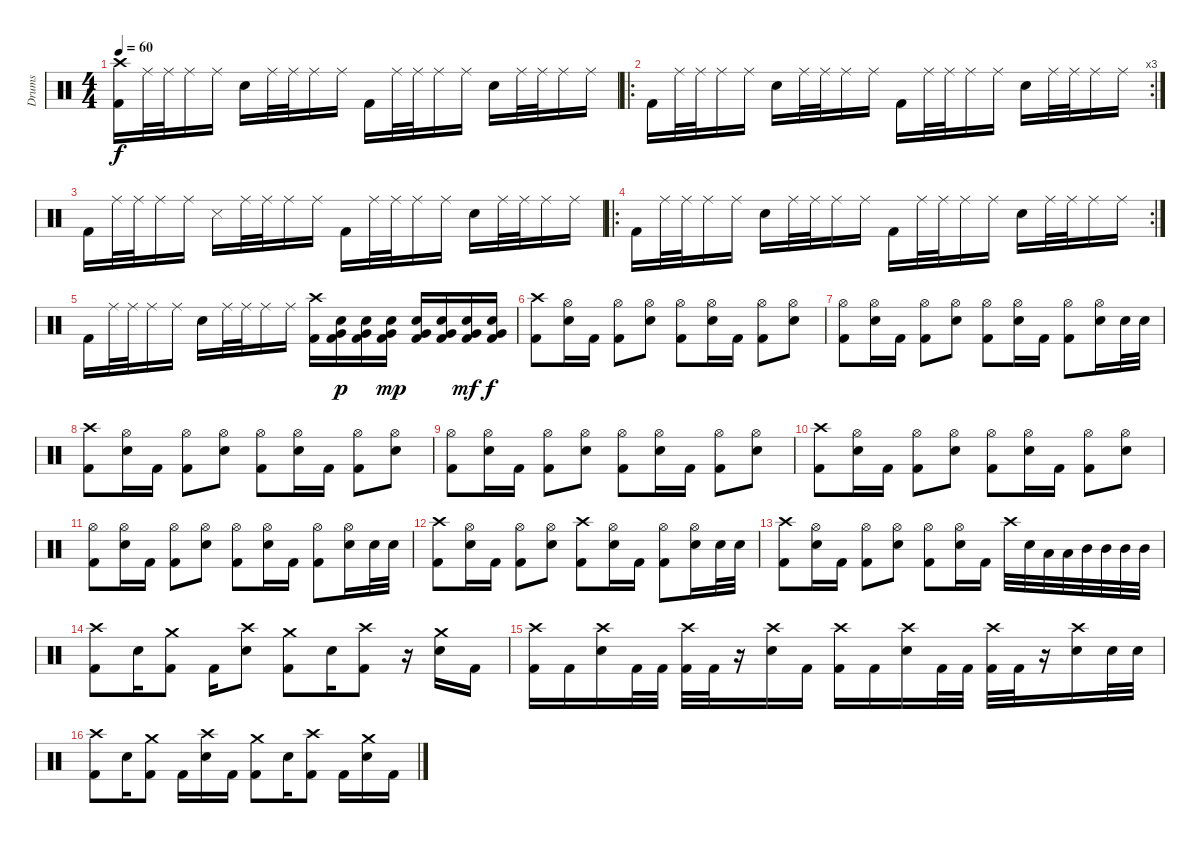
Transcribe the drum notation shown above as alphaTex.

\track ("Drums" "Drums") {instrument percussion}
\staff {score}
\articulation defaults
\ts (4 4)
\tempo 60
\clef neutral
\ks c
("Crash high (hit)" "Kick (hit) 2").16{dy f} "Ride (middle)".32 "Ride (middle)".32 "Ride (middle)".16 "Ride (middle)".16 "Electric Snare (hit)".16 "Ride (middle)".32 "Ride (middle)".32 "Ride (middle)".16 "Ride (middle)".16 "Kick (hit) 2".16 "Ride (middle)".32 "Ride (middle)".32 "Ride (middle)".16 "Ride (middle)".16 "Electric Snare (hit)".16 "Ride (middle)".32 "Ride (middle)".32 "Ride (middle)".16 "Ride (middle)".16 |
\ro
\rc 3 "Kick (hit) 2".16 "Ride (middle)".32 "Ride (middle)".32 "Ride (middle)".16 "Ride (middle)".16 "Electric Snare (hit)".16 "Ride (middle)".32 "Ride (middle)".32 "Ride (middle)".16 "Ride (middle)".16 "Kick (hit) 2".16 "Ride (middle)".32 "Ride (middle)".32 "Ride (middle)".16 "Ride (middle)".16 "Electric Snare (hit)".16 "Ride (middle)".32 "Ride (middle)".32 "Ride (middle)".16 "Ride (middle)".16
|
"Kick (hit) 2".16 "Ride (middle)".32 "Ride (middle)".32 "Ride (middle)".16 "Ride (middle)".16 "Snare (side stick) 3".16 "Ride (middle)".32 "Ride (middle)".32 "Ride (middle)".16 "Ride (middle)".16 "Kick (hit) 2".16 "Ride (middle)".32 "Ride (middle)".32 "Ride (middle)".16 "Ride (middle)".16 "Electric Snare (hit)".16 "Ride (middle)".32 "Ride (middle)".32 "Ride (middle)".16 "Ride (middle)".16 |
\ro
\rc 2 "Kick (hit) 2".16 "Ride (middle)".32 "Ride (middle)".32 "Ride (middle)".16 "Ride (middle)".16 "Electric Snare (hit)".16 "Ride (middle)".32 "Ride (middle)".32 "Ride (middle)".16 "Ride (middle)".16 "Kick (hit) 2".16 "Ride (middle)".32 "Ride (middle)".32 "Ride (middle)".16 "Ride (middle)".16 "Electric Snare (hit)".16 "Ride (middle)".32 "Ride (middle)".32 "Ride (middle)".16 "Ride (middle)".16
|
"Kick (hit) 2".16 "Ride (middle)".32 "Ride (middle)".32 "Ride (middle)".16 "Ride (middle)".16 "Electric Snare (hit)".16 "Ride (middle)".32 "Ride (middle)".32 "Ride (middle)".16 "Ride (middle)".16 ("Crash high (hit)" "Kick (hit) 2").16 ("Electric Snare (hit)" "Very Low Tom (hit)" "Kick (hit) 2").16{dy p} ("Electric Snare (hit)" "Very Low Tom (hit)" "Kick (hit) 2").16 ("Electric Snare (hit)" "Very Low Tom (hit)" "Kick (hit) 2").16{dy mp} ("Electric Snare (hit)" "Very Low Tom (hit)" "Kick (hit) 2").16 ("Electric Snare (hit)" "Very Low Tom (hit)" "Kick (hit) 2").16 ("Electric Snare (hit)" "Very Low Tom (hit)" "Kick (hit) 2").16{dy mf} ("Electric Snare (hit)" "Very Low Tom (hit)" "Kick (hit) 2").16{dy f} |
("Crash high (hit)" "Kick (hit) 2").8 ("Hi-Hat (open)" "Electric Snare (hit)").16 "Kick (hit) 2".16 ("Hi-Hat (open)" "Kick (hit) 2").8 ("Hi-Hat (open)" "Electric Snare (hit)").8 ("Hi-Hat (open)" "Kick (hit) 2").8 ("Hi-Hat (open)" "Electric Snare (hit)").16 "Kick (hit) 2".16 ("Hi-Hat (open)" "Kick (hit) 2").8 ("Hi-Hat (open)" "Electric Snare (hit)").8 |
("Hi-Hat (open)" "Kick (hit) 2").8 ("Hi-Hat (open)" "Electric Snare (hit)").16 "Kick (hit) 2".16 ("Hi-Hat (open)" "Kick (hit) 2").8 ("Hi-Hat (open)" "Electric Snare (hit)").8 ("Hi-Hat (open)" "Kick (hit) 2").8 ("Hi-Hat (open)" "Electric Snare (hit)").16 "Kick (hit) 2".16 ("Hi-Hat (open)" "Kick (hit) 2").8 ("Hi-Hat (open)" "Electric Snare (hit)").16 "Electric Snare (hit)".32 "Electric Snare (hit)".32 |
("Crash high (hit)" "Kick (hit) 2").8 ("Hi-Hat (open)" "Electric Snare (hit)").16 "Kick (hit) 2".16 ("Hi-Hat (open)" "Kick (hit) 2").8 ("Hi-Hat (open)" "Electric Snare (hit)").8 ("Hi-Hat (open)" "Kick (hit) 2").8 ("Hi-Hat (open)" "Electric Snare (hit)").16 "Kick (hit) 2".16 ("Hi-Hat (open)" "Kick (hit) 2").8 ("Hi-Hat (open)" "Electric Snare (hit)").8 |
("Hi-Hat (open)" "Kick (hit) 2").8 ("Hi-Hat (open)" "Electric Snare (hit)").16 "Kick (hit) 2".16 ("Hi-Hat (open)" "Kick (hit) 2").8 ("Hi-Hat (open)" "Electric Snare (hit)").8 ("Hi-Hat (open)" "Kick (hit) 2").8 ("Hi-Hat (open)" "Electric Snare (hit)").16 "Kick (hit) 2".16 ("Hi-Hat (open)" "Kick (hit) 2").8 ("Hi-Hat (open)" "Electric Snare (hit)").8 |
("Crash high (hit)" "Kick (hit) 2").8 ("Hi-Hat (open)" "Electric Snare (hit)").16 "Kick (hit) 2".16 ("Hi-Hat (open)" "Kick (hit) 2").8 ("Hi-Hat (open)" "Electric Snare (hit)").8 ("Hi-Hat (open)" "Kick (hit) 2").8 ("Hi-Hat (open)" "Electric Snare (hit)").16 "Kick (hit) 2".16 ("Hi-Hat (open)" "Kick (hit) 2").8 ("Hi-Hat (open)" "Electric Snare (hit)").8 |
("Hi-Hat (open)" "Kick (hit) 2").8 ("Hi-Hat (open)" "Electric Snare (hit)").16 "Kick (hit) 2".16 ("Hi-Hat (open)" "Kick (hit) 2").8 ("Hi-Hat (open)" "Electric Snare (hit)").8 ("Hi-Hat (open)" "Kick (hit) 2").8 ("Hi-Hat (open)" "Electric Snare (hit)").16 "Kick (hit) 2".16 ("Hi-Hat (open)" "Kick (hit) 2").8 ("Hi-Hat (open)" "Electric Snare (hit)").16 "Electric Snare (hit)".32 "Electric Snare (hit)".32 |
("Crash high (hit)" "Kick (hit) 2").8 ("Hi-Hat (open)" "Electric Snare (hit)").16 "Kick (hit) 2".16 ("Hi-Hat (open)" "Kick (hit) 2").8 ("Hi-Hat (open)" "Electric Snare (hit)").8 ("Crash high (hit)" "Kick (hit) 2").8 ("Hi-Hat (open)" "Electric Snare (hit)").16 "Kick (hit) 2".16 ("Hi-Hat (open)" "Kick (hit) 2").8 ("Hi-Hat (open)" "Electric Snare (hit)").16 "Electric Snare (hit)".32 "Electric Snare (hit)".32 |
("Crash high (hit)" "Kick (hit) 2").8 ("Hi-Hat (open)" "Electric Snare (hit)").16 "Kick (hit) 2".16 ("Hi-Hat (open)" "Kick (hit) 2").8 ("Hi-Hat (open)" "Electric Snare (hit)").8 ("Hi-Hat (open)" "Kick (hit) 2").8 ("Hi-Hat (open)" "Electric Snare (hit)").16 "Kick (hit) 2".16 "Crash high (hit)".32 "Electric Snare (hit)".32 "Low Tom (hit)".32 "Low Tom (hit)".32 "Mid Tom (hit)".32 "Mid Tom (hit)".32 "Mid Tom (hit)".32 "Mid Tom (hit)".32 |
("Crash high (hit)" "Kick (hit) 2").8 "Electric Snare (hit)".16 ("Crash medium (hit)" "Kick (hit) 2").8 "Kick (hit) 2".16 ("Crash high (hit)" "Electric Snare (hit)").8 ("Crash medium (hit)" "Kick (hit) 2").8 "Electric Snare (hit)".16 ("Crash high (hit)" "Kick (hit) 2").8 r.16 ("Crash medium (hit)" "Electric Snare (hit)").16 "Kick (hit) 2".16 |
("Crash high (hit)" "Kick (hit) 2").16 "Kick (hit) 2".16 ("Crash high (hit)" "Electric Snare (hit)").16 "Kick (hit) 2".32 "Kick (hit) 2".32 ("Crash high (hit)" "Kick (hit) 2").32 "Kick (hit) 2".32 r.16 ("Crash high (hit)" "Electric Snare (hit)").16 "Kick (hit) 2".16 ("Crash high (hit)" "Kick (hit) 2").16 "Kick (hit) 2".16 ("Crash high (hit)" "Electric Snare (hit)").16 "Kick (hit) 2".32 "Kick (hit) 2".32 ("Crash high (hit)" "Kick (hit) 2").32 "Kick (hit) 2".32 r.16 ("Crash high (hit)" "Electric Snare (hit)").16 "Electric Snare (hit)".32 "Electric Snare (hit)".32 |
("Crash high (hit)" "Kick (hit) 2").8 "Electric Snare (hit)".16 ("Crash medium (hit)" "Kick (hit) 2").8 "Kick (hit) 2".16 ("Crash high (hit)" "Electric Snare (hit)").16 "Kick (hit) 2".16 ("Crash medium (hit)" "Kick (hit) 2").8 "Electric Snare (hit)".16 ("Crash high (hit)" "Kick (hit) 2").8 "Kick (hit) 2".16 ("Crash medium (hit)" "Electric Snare (hit)").16 "Kick (hit) 2".16
